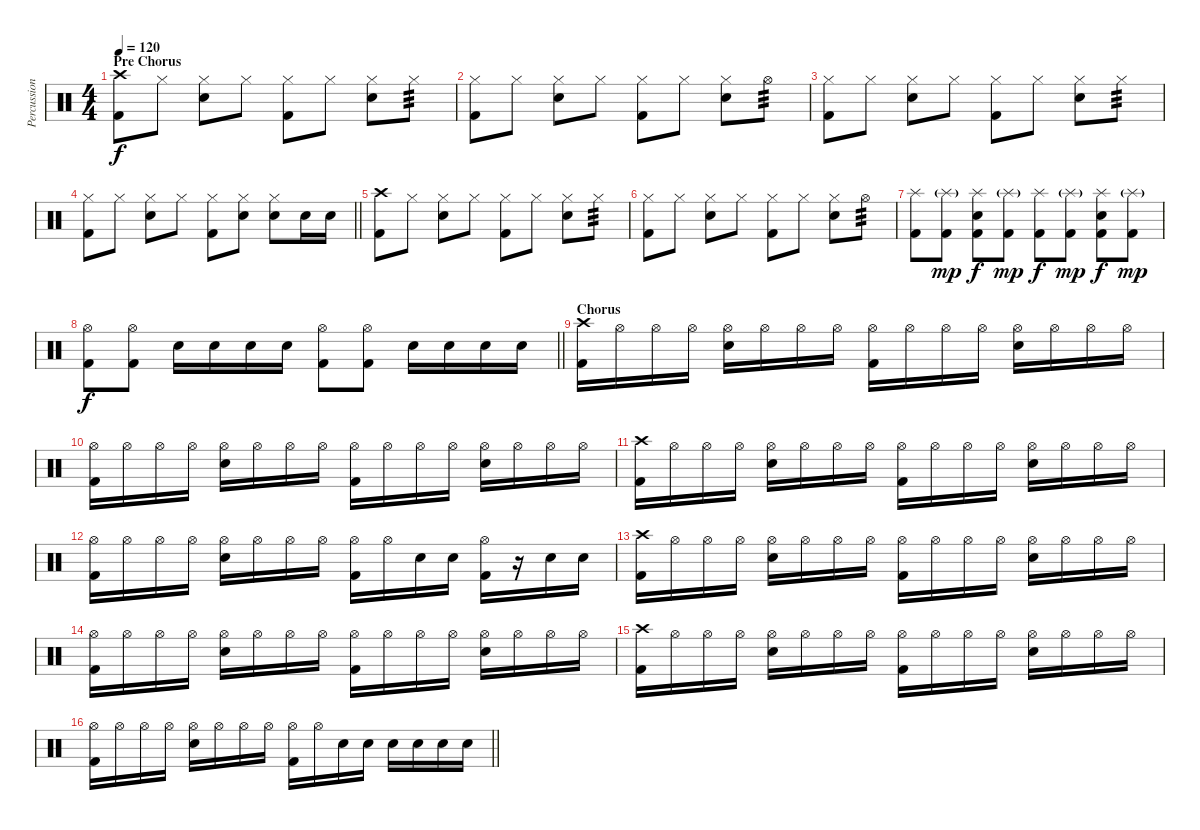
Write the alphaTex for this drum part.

\track ("Percussion" "Percussion") {instrument percussion}
\staff {score}
\articulation defaults
\ts (4 4)
\section ("" "Pre Chorus")
\tempo 120
\clef neutral
\ks c
("Kick (hit) 2" "Crash high (hit)").8{dy f} "Hi-Hat (closed)".8 ("Electric Snare (hit)" "Hi-Hat (closed)").8 "Hi-Hat (closed)".8 ("Kick (hit) 2" "Hi-Hat (closed)").8 "Hi-Hat (closed)".8 ("Electric Snare (hit)" "Hi-Hat (closed)").8 "Hi-Hat (closed)".8{tp 3} |
("Kick (hit) 2" "Hi-Hat (closed)").8 "Hi-Hat (closed)".8 ("Electric Snare (hit)" "Hi-Hat (closed)").8 "Hi-Hat (closed)".8 ("Kick (hit) 2" "Hi-Hat (closed)").8 "Hi-Hat (closed)".8 ("Electric Snare (hit)" "Hi-Hat (closed)").8 "Hi-Hat (open)".8{tp 3} |
("Kick (hit) 2" "Hi-Hat (closed)").8 "Hi-Hat (closed)".8 ("Electric Snare (hit)" "Hi-Hat (closed)").8 "Hi-Hat (closed)".8 ("Kick (hit) 2" "Hi-Hat (closed)").8 "Hi-Hat (closed)".8 ("Electric Snare (hit)" "Hi-Hat (closed)").8 "Hi-Hat (closed)".8{tp 3} |
\barLineRight lightlight
("Kick (hit) 2" "Hi-Hat (closed)").8 "Hi-Hat (closed)".8 ("Electric Snare (hit)" "Hi-Hat (closed)").8 "Hi-Hat (closed)".8 ("Kick (hit) 2" "Hi-Hat (closed)").8 ("Electric Snare (hit)" "Hi-Hat (closed)").8 ("Electric Snare (hit)" "Hi-Hat (closed)").8 "Electric Snare (hit)".16 "Electric Snare (hit)".16 |
("Kick (hit) 2" "Crash high (hit)").8 "Hi-Hat (closed)".8 ("Electric Snare (hit)" "Hi-Hat (closed)").8 "Hi-Hat (closed)".8 ("Kick (hit) 2" "Hi-Hat (closed)").8 "Hi-Hat (closed)".8 ("Electric Snare (hit)" "Hi-Hat (closed)").8 "Hi-Hat (closed)".8{tp 3} |
("Kick (hit) 2" "Hi-Hat (closed)").8 "Hi-Hat (closed)".8 ("Electric Snare (hit)" "Hi-Hat (closed)").8 "Hi-Hat (closed)".8 ("Kick (hit) 2" "Hi-Hat (closed)").8 "Hi-Hat (closed)".8 ("Electric Snare (hit)" "Hi-Hat (closed)").8 "Hi-Hat (open)".8{tp 3} |
("Kick (hit) 2" "Splash (hit)").8 ("Kick (hit) 2" "Splash (hit)"{g}).8{dy mp} ("Kick (hit) 2" "Electric Snare (hit)" "Splash (hit)").8{dy f} ("Kick (hit) 2" "Splash (hit)"{g}).8{dy mp} ("Kick (hit) 2" "Splash (hit)").8{dy f} ("Kick (hit) 2" "Splash (hit)"{g}).8{dy mp} ("Kick (hit) 2" "Electric Snare (hit)" "Splash (hit)").8{dy f} ("Kick (hit) 2" "Splash (hit)"{g}).8{dy mp} |
\barLineRight lightlight
("Kick (hit) 2" "Hi-Hat (open)").8{dy f} ("Kick (hit) 2" "Hi-Hat (open)").8 "Electric Snare (hit)".16 "Electric Snare (hit)".16 "Electric Snare (hit)".16 "Electric Snare (hit)".16 ("Kick (hit) 2" "Hi-Hat (open)").8 ("Kick (hit) 2" "Hi-Hat (open)").8 "Electric Snare (hit)".16 "Electric Snare (hit)".16 "Electric Snare (hit)".16 "Electric Snare (hit)".16 |
\section ("" "Chorus")
("Crash high (hit)" "Kick (hit) 2").16 "Hi-Hat (open)".16 "Hi-Hat (open)".16 "Hi-Hat (open)".16 ("Hi-Hat (open)" "Electric Snare (hit)").16 "Hi-Hat (open)".16 "Hi-Hat (open)".16 "Hi-Hat (open)".16 ("Hi-Hat (open)" "Kick (hit) 2").16 "Hi-Hat (open)".16 "Hi-Hat (open)".16 "Hi-Hat (open)".16 ("Hi-Hat (open)" "Electric Snare (hit)").16 "Hi-Hat (open)".16 "Hi-Hat (open)".16 "Hi-Hat (open)".16 |
("Hi-Hat (open)" "Kick (hit) 2").16 "Hi-Hat (open)".16 "Hi-Hat (open)".16 "Hi-Hat (open)".16 ("Hi-Hat (open)" "Electric Snare (hit)").16 "Hi-Hat (open)".16 "Hi-Hat (open)".16 "Hi-Hat (open)".16 ("Hi-Hat (open)" "Kick (hit) 2").16 "Hi-Hat (open)".16 "Hi-Hat (open)".16 "Hi-Hat (open)".16 ("Hi-Hat (open)" "Electric Snare (hit)").16 "Hi-Hat (open)".16 "Hi-Hat (open)".16 "Hi-Hat (open)".16 |
("Crash high (hit)" "Kick (hit) 2").16 "Hi-Hat (open)".16 "Hi-Hat (open)".16 "Hi-Hat (open)".16 ("Hi-Hat (open)" "Electric Snare (hit)").16 "Hi-Hat (open)".16 "Hi-Hat (open)".16 "Hi-Hat (open)".16 ("Hi-Hat (open)" "Kick (hit) 2").16 "Hi-Hat (open)".16 "Hi-Hat (open)".16 "Hi-Hat (open)".16 ("Hi-Hat (open)" "Electric Snare (hit)").16 "Hi-Hat (open)".16 "Hi-Hat (open)".16 "Hi-Hat (open)".16 |
("Hi-Hat (open)" "Kick (hit) 2").16 "Hi-Hat (open)".16 "Hi-Hat (open)".16 "Hi-Hat (open)".16 ("Hi-Hat (open)" "Electric Snare (hit)").16 "Hi-Hat (open)".16 "Hi-Hat (open)".16 "Hi-Hat (open)".16 ("Hi-Hat (open)" "Kick (hit) 2").16 "Hi-Hat (open)".16 "Electric Snare (hit)".16 "Electric Snare (hit)".16 ("Hi-Hat (open)" "Kick (hit) 2").16 r.16 "Electric Snare (hit)".16 "Electric Snare (hit)".16 |
("Crash high (hit)" "Kick (hit) 2").16 "Hi-Hat (open)".16 "Hi-Hat (open)".16 "Hi-Hat (open)".16 ("Hi-Hat (open)" "Electric Snare (hit)").16 "Hi-Hat (open)".16 "Hi-Hat (open)".16 "Hi-Hat (open)".16 ("Hi-Hat (open)" "Kick (hit) 2").16 "Hi-Hat (open)".16 "Hi-Hat (open)".16 "Hi-Hat (open)".16 ("Hi-Hat (open)" "Electric Snare (hit)").16 "Hi-Hat (open)".16 "Hi-Hat (open)".16 "Hi-Hat (open)".16 |
("Hi-Hat (open)" "Kick (hit) 2").16 "Hi-Hat (open)".16 "Hi-Hat (open)".16 "Hi-Hat (open)".16 ("Hi-Hat (open)" "Electric Snare (hit)").16 "Hi-Hat (open)".16 "Hi-Hat (open)".16 "Hi-Hat (open)".16 ("Hi-Hat (open)" "Kick (hit) 2").16 "Hi-Hat (open)".16 "Hi-Hat (open)".16 "Hi-Hat (open)".16 ("Hi-Hat (open)" "Electric Snare (hit)").16 "Hi-Hat (open)".16 "Hi-Hat (open)".16 "Hi-Hat (open)".16 |
("Crash high (hit)" "Kick (hit) 2").16 "Hi-Hat (open)".16 "Hi-Hat (open)".16 "Hi-Hat (open)".16 ("Hi-Hat (open)" "Electric Snare (hit)").16 "Hi-Hat (open)".16 "Hi-Hat (open)".16 "Hi-Hat (open)".16 ("Hi-Hat (open)" "Kick (hit) 2").16 "Hi-Hat (open)".16 "Hi-Hat (open)".16 "Hi-Hat (open)".16 ("Hi-Hat (open)" "Electric Snare (hit)").16 "Hi-Hat (open)".16 "Hi-Hat (open)".16 "Hi-Hat (open)".16 |
\barLineRight lightlight
("Hi-Hat (open)" "Kick (hit) 2").16 "Hi-Hat (open)".16 "Hi-Hat (open)".16 "Hi-Hat (open)".16 ("Hi-Hat (open)" "Electric Snare (hit)").16 "Hi-Hat (open)".16 "Hi-Hat (open)".16 "Hi-Hat (open)".16 ("Hi-Hat (open)" "Kick (hit) 2").16 "Hi-Hat (open)".16 "Electric Snare (hit)".16 "Electric Snare (hit)".16 "Electric Snare (hit)".16 "Electric Snare (hit)".16 "Electric Snare (hit)".16 "Electric Snare (hit)".16
